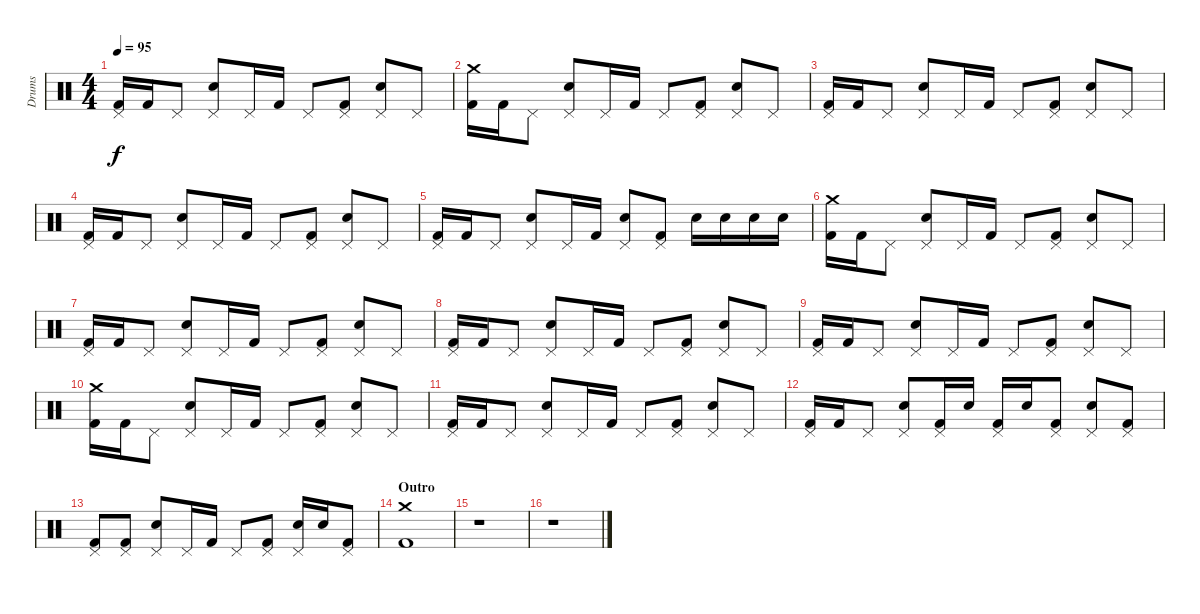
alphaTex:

\track ("Drums" "Drums") {instrument percussion}
\staff {score}
\articulation defaults
\ts (4 4)
\tempo 95
\clef neutral
\ks c
("Pedal Hi-Hat (hit)" "Kick (hit) 2").16{dy f} "Kick (hit) 2".16 "Pedal Hi-Hat (hit)".8 ("Pedal Hi-Hat (hit)" "Electric Snare (hit)").8 "Pedal Hi-Hat (hit)".16 "Kick (hit) 2".16 "Pedal Hi-Hat (hit)".8 ("Pedal Hi-Hat (hit)" "Kick (hit) 2").8 ("Pedal Hi-Hat (hit)" "Electric Snare (hit)").8 "Pedal Hi-Hat (hit)".8 |
("Crash medium (hit)" "Kick (hit) 2").16 "Kick (hit) 2".16 "Pedal Hi-Hat (hit)".8 ("Pedal Hi-Hat (hit)" "Electric Snare (hit)").8 "Pedal Hi-Hat (hit)".16 "Kick (hit) 2".16 "Pedal Hi-Hat (hit)".8 ("Pedal Hi-Hat (hit)" "Kick (hit) 2").8 ("Pedal Hi-Hat (hit)" "Electric Snare (hit)").8 "Pedal Hi-Hat (hit)".8 |
("Pedal Hi-Hat (hit)" "Kick (hit) 2").16 "Kick (hit) 2".16 "Pedal Hi-Hat (hit)".8 ("Pedal Hi-Hat (hit)" "Electric Snare (hit)").8 "Pedal Hi-Hat (hit)".16 "Kick (hit) 2".16 "Pedal Hi-Hat (hit)".8 ("Pedal Hi-Hat (hit)" "Kick (hit) 2").8 ("Pedal Hi-Hat (hit)" "Electric Snare (hit)").8 "Pedal Hi-Hat (hit)".8 |
("Pedal Hi-Hat (hit)" "Kick (hit) 2").16 "Kick (hit) 2".16 "Pedal Hi-Hat (hit)".8 ("Pedal Hi-Hat (hit)" "Electric Snare (hit)").8 "Pedal Hi-Hat (hit)".16 "Kick (hit) 2".16 "Pedal Hi-Hat (hit)".8 ("Pedal Hi-Hat (hit)" "Kick (hit) 2").8 ("Pedal Hi-Hat (hit)" "Electric Snare (hit)").8 "Pedal Hi-Hat (hit)".8 |
("Pedal Hi-Hat (hit)" "Kick (hit) 2").16 "Kick (hit) 2".16 "Pedal Hi-Hat (hit)".8 ("Pedal Hi-Hat (hit)" "Electric Snare (hit)").8 "Pedal Hi-Hat (hit)".16 "Kick (hit) 2".16 ("Pedal Hi-Hat (hit)" "Electric Snare (hit)").8 ("Pedal Hi-Hat (hit)" "Kick (hit) 2").8 "Electric Snare (hit)".16 "Electric Snare (hit)".16 "Electric Snare (hit)".16 "Electric Snare (hit)".16 |
("Crash medium (hit)" "Kick (hit) 2").16 "Kick (hit) 2".16 "Pedal Hi-Hat (hit)".8 ("Pedal Hi-Hat (hit)" "Electric Snare (hit)").8 "Pedal Hi-Hat (hit)".16 "Kick (hit) 2".16 "Pedal Hi-Hat (hit)".8 ("Pedal Hi-Hat (hit)" "Kick (hit) 2").8 ("Pedal Hi-Hat (hit)" "Electric Snare (hit)").8 "Pedal Hi-Hat (hit)".8 |
("Pedal Hi-Hat (hit)" "Kick (hit) 2").16 "Kick (hit) 2".16 "Pedal Hi-Hat (hit)".8 ("Pedal Hi-Hat (hit)" "Electric Snare (hit)").8 "Pedal Hi-Hat (hit)".16 "Kick (hit) 2".16 "Pedal Hi-Hat (hit)".8 ("Pedal Hi-Hat (hit)" "Kick (hit) 2").8 ("Pedal Hi-Hat (hit)" "Electric Snare (hit)").8 "Pedal Hi-Hat (hit)".8 |
("Pedal Hi-Hat (hit)" "Kick (hit) 2").16 "Kick (hit) 2".16 "Pedal Hi-Hat (hit)".8 ("Pedal Hi-Hat (hit)" "Electric Snare (hit)").8 "Pedal Hi-Hat (hit)".16 "Kick (hit) 2".16 "Pedal Hi-Hat (hit)".8 ("Pedal Hi-Hat (hit)" "Kick (hit) 2").8 ("Pedal Hi-Hat (hit)" "Electric Snare (hit)").8 "Pedal Hi-Hat (hit)".8 |
("Pedal Hi-Hat (hit)" "Kick (hit) 2").16 "Kick (hit) 2".16 "Pedal Hi-Hat (hit)".8 ("Pedal Hi-Hat (hit)" "Electric Snare (hit)").8 "Pedal Hi-Hat (hit)".16 "Kick (hit) 2".16 "Pedal Hi-Hat (hit)".8 ("Pedal Hi-Hat (hit)" "Kick (hit) 2").8 ("Pedal Hi-Hat (hit)" "Electric Snare (hit)").8 "Pedal Hi-Hat (hit)".8 |
("Crash medium (hit)" "Kick (hit) 2").16 "Kick (hit) 2".16 "Pedal Hi-Hat (hit)".8 ("Pedal Hi-Hat (hit)" "Electric Snare (hit)").8 "Pedal Hi-Hat (hit)".16 "Kick (hit) 2".16 "Pedal Hi-Hat (hit)".8 ("Pedal Hi-Hat (hit)" "Kick (hit) 2").8 ("Pedal Hi-Hat (hit)" "Electric Snare (hit)").8 "Pedal Hi-Hat (hit)".8 |
("Pedal Hi-Hat (hit)" "Kick (hit) 2").16 "Kick (hit) 2".16 "Pedal Hi-Hat (hit)".8 ("Pedal Hi-Hat (hit)" "Electric Snare (hit)").8 "Pedal Hi-Hat (hit)".16 "Kick (hit) 2".16 "Pedal Hi-Hat (hit)".8 ("Pedal Hi-Hat (hit)" "Kick (hit) 2").8 ("Pedal Hi-Hat (hit)" "Electric Snare (hit)").8 "Pedal Hi-Hat (hit)".8 |
("Pedal Hi-Hat (hit)" "Kick (hit) 2").16 "Kick (hit) 2".16 "Pedal Hi-Hat (hit)".8 ("Pedal Hi-Hat (hit)" "Electric Snare (hit)").8 ("Pedal Hi-Hat (hit)" "Kick (hit) 2").16 "Electric Snare (hit)".16 ("Pedal Hi-Hat (hit)" "Kick (hit) 2").16 "Electric Snare (hit)".16 ("Pedal Hi-Hat (hit)" "Kick (hit) 2").8 ("Pedal Hi-Hat (hit)" "Electric Snare (hit)").8 ("Pedal Hi-Hat (hit)" "Kick (hit) 2").8 |
("Pedal Hi-Hat (hit)" "Kick (hit) 2").8 ("Pedal Hi-Hat (hit)" "Kick (hit) 2").8 ("Pedal Hi-Hat (hit)" "Electric Snare (hit)").8 "Pedal Hi-Hat (hit)".16 "Kick (hit) 2".16 "Pedal Hi-Hat (hit)".8 ("Pedal Hi-Hat (hit)" "Kick (hit) 2").8 ("Pedal Hi-Hat (hit)" "Electric Snare (hit)").16 "Electric Snare (hit)".16 ("Pedal Hi-Hat (hit)" "Kick (hit) 2").8 |
\section ("" "Outro")
("Crash medium (hit)" "Kick (hit) 2").1 |
r.1 |
r.1
